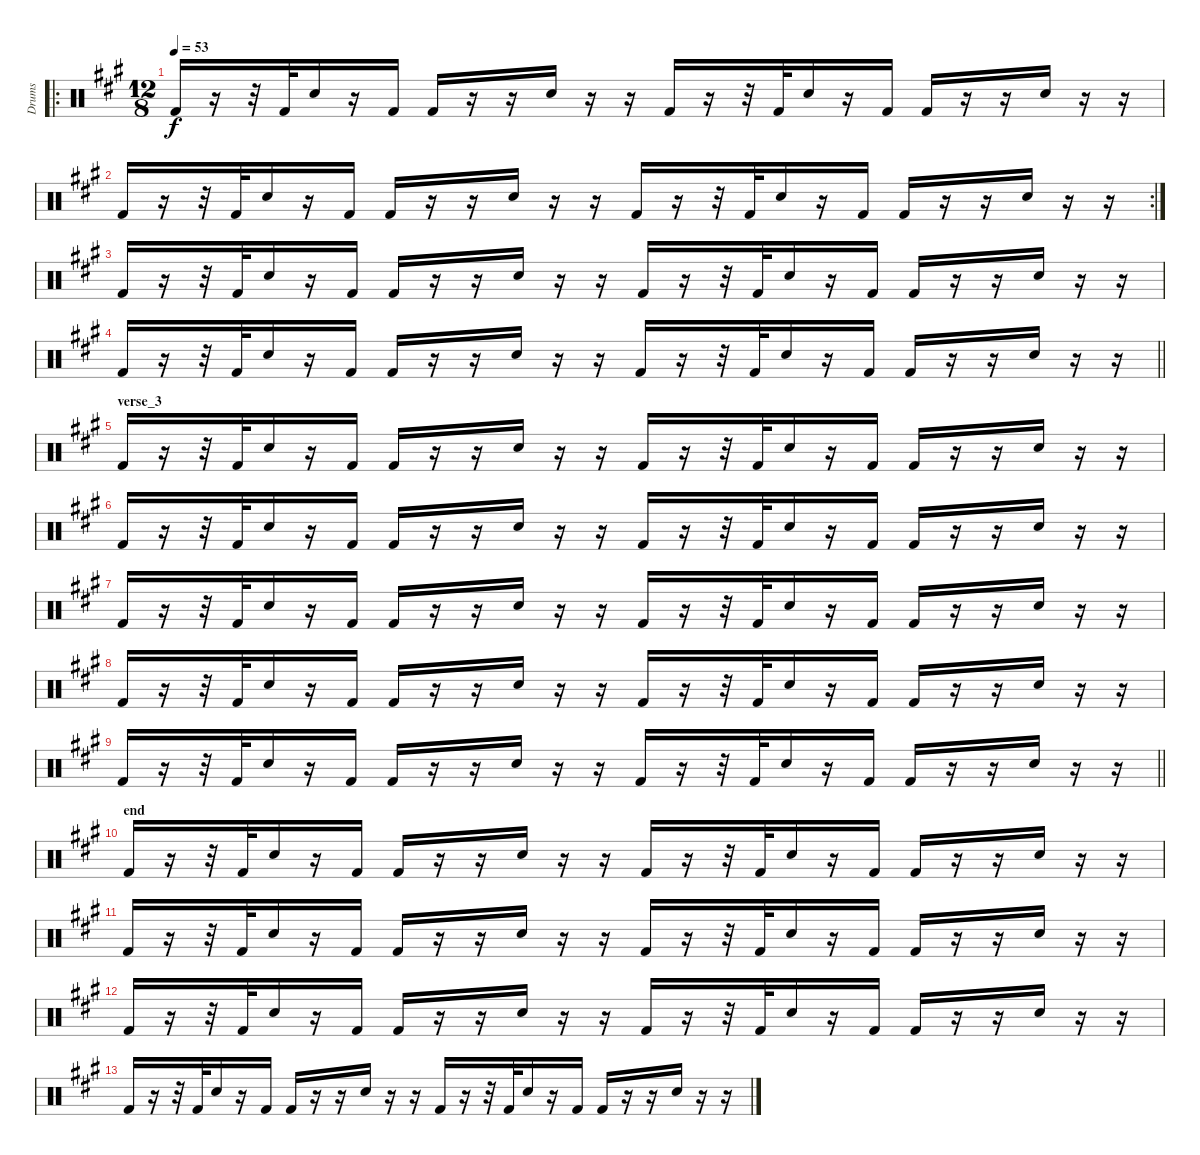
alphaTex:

\track ("Drums" "Drums") {instrument percussion}
\staff {score}
\articulation defaults
\ro
\ts (12 8)
\tempo 53
\clef neutral
\ks f#minor "Kick (hit) 2".16{dy f}
r.16 r.32 "Kick (hit) 2".32 "Snare (hit) 2".16 r.16 "Kick (hit) 2".16 "Kick (hit) 2".16 r.16 r.16 "Snare (hit) 2".16 r.16 r.16 "Kick (hit) 2".16 r.16 r.32 "Kick (hit) 2".32 "Snare (hit) 2".16 r.16 "Kick (hit) 2".16 "Kick (hit) 2".16 r.16 r.16 "Snare (hit) 2".16 r.16 r.16 |
\rc 2 "Kick (hit) 2".16
r.16 r.32 "Kick (hit) 2".32 "Snare (hit) 2".16 r.16 "Kick (hit) 2".16 "Kick (hit) 2".16 r.16 r.16 "Snare (hit) 2".16 r.16 r.16 "Kick (hit) 2".16 r.16 r.32 "Kick (hit) 2".32 "Snare (hit) 2".16 r.16 "Kick (hit) 2".16 "Kick (hit) 2".16 r.16 r.16 "Snare (hit) 2".16 r.16 r.16 |
"Kick (hit) 2".16 r.16 r.32 "Kick (hit) 2".32 "Snare (hit) 2".16 r.16 "Kick (hit) 2".16 "Kick (hit) 2".16 r.16 r.16 "Snare (hit) 2".16 r.16 r.16 "Kick (hit) 2".16 r.16 r.32 "Kick (hit) 2".32 "Snare (hit) 2".16 r.16 "Kick (hit) 2".16 "Kick (hit) 2".16 r.16 r.16 "Snare (hit) 2".16 r.16 r.16 |
\barLineRight lightlight "Kick (hit) 2".16
r.16 r.32 "Kick (hit) 2".32 "Snare (hit) 2".16 r.16 "Kick (hit) 2".16 "Kick (hit) 2".16 r.16 r.16 "Snare (hit) 2".16 r.16 r.16 "Kick (hit) 2".16 r.16 r.32 "Kick (hit) 2".32 "Snare (hit) 2".16 r.16 "Kick (hit) 2".16 "Kick (hit) 2".16 r.16 r.16 "Snare (hit) 2".16 r.16 r.16 |
\section ("" "verse_3")
"Kick (hit) 2".16 r.16 r.32 "Kick (hit) 2".32 "Snare (hit) 2".16 r.16 "Kick (hit) 2".16 "Kick (hit) 2".16 r.16 r.16 "Snare (hit) 2".16 r.16 r.16 "Kick (hit) 2".16 r.16 r.32 "Kick (hit) 2".32 "Snare (hit) 2".16 r.16 "Kick (hit) 2".16 "Kick (hit) 2".16 r.16 r.16 "Snare (hit) 2".16 r.16 r.16 |
"Kick (hit) 2".16 r.16 r.32 "Kick (hit) 2".32 "Snare (hit) 2".16 r.16 "Kick (hit) 2".16 "Kick (hit) 2".16 r.16 r.16 "Snare (hit) 2".16 r.16 r.16 "Kick (hit) 2".16 r.16 r.32 "Kick (hit) 2".32 "Snare (hit) 2".16 r.16 "Kick (hit) 2".16 "Kick (hit) 2".16 r.16 r.16 "Snare (hit) 2".16 r.16 r.16 |
"Kick (hit) 2".16 r.16 r.32 "Kick (hit) 2".32 "Snare (hit) 2".16 r.16 "Kick (hit) 2".16 "Kick (hit) 2".16 r.16 r.16 "Snare (hit) 2".16 r.16 r.16 "Kick (hit) 2".16 r.16 r.32 "Kick (hit) 2".32 "Snare (hit) 2".16 r.16 "Kick (hit) 2".16 "Kick (hit) 2".16 r.16 r.16 "Snare (hit) 2".16 r.16 r.16 |
"Kick (hit) 2".16 r.16 r.32 "Kick (hit) 2".32 "Snare (hit) 2".16 r.16 "Kick (hit) 2".16 "Kick (hit) 2".16 r.16 r.16 "Snare (hit) 2".16 r.16 r.16 "Kick (hit) 2".16 r.16 r.32 "Kick (hit) 2".32 "Snare (hit) 2".16 r.16 "Kick (hit) 2".16 "Kick (hit) 2".16 r.16 r.16 "Snare (hit) 2".16 r.16 r.16 |
\barLineRight lightlight "Kick (hit) 2".16
r.16 r.32 "Kick (hit) 2".32 "Snare (hit) 2".16 r.16 "Kick (hit) 2".16 "Kick (hit) 2".16 r.16 r.16 "Snare (hit) 2".16 r.16 r.16 "Kick (hit) 2".16 r.16 r.32 "Kick (hit) 2".32 "Snare (hit) 2".16 r.16 "Kick (hit) 2".16 "Kick (hit) 2".16 r.16 r.16 "Snare (hit) 2".16 r.16 r.16 |
\section ("" "end")
"Kick (hit) 2".16 r.16 r.32 "Kick (hit) 2".32 "Snare (hit) 2".16 r.16 "Kick (hit) 2".16 "Kick (hit) 2".16 r.16 r.16 "Snare (hit) 2".16 r.16 r.16 "Kick (hit) 2".16 r.16 r.32 "Kick (hit) 2".32 "Snare (hit) 2".16 r.16 "Kick (hit) 2".16 "Kick (hit) 2".16 r.16 r.16 "Snare (hit) 2".16 r.16 r.16 |
"Kick (hit) 2".16 r.16 r.32 "Kick (hit) 2".32 "Snare (hit) 2".16 r.16 "Kick (hit) 2".16 "Kick (hit) 2".16 r.16 r.16 "Snare (hit) 2".16 r.16 r.16 "Kick (hit) 2".16 r.16 r.32 "Kick (hit) 2".32 "Snare (hit) 2".16 r.16 "Kick (hit) 2".16 "Kick (hit) 2".16 r.16 r.16 "Snare (hit) 2".16 r.16 r.16 |
"Kick (hit) 2".16{volume 3} r.16 r.32 "Kick (hit) 2".32 "Snare (hit) 2".16 r.16 "Kick (hit) 2".16 "Kick (hit) 2".16 r.16 r.16 "Snare (hit) 2".16 r.16 r.16 "Kick (hit) 2".16 r.16 r.32 "Kick (hit) 2".32 "Snare (hit) 2".16 r.16 "Kick (hit) 2".16 "Kick (hit) 2".16 r.16 r.16 "Snare (hit) 2".16 r.16 r.16 |
"Kick (hit) 2".16 r.16 r.32 "Kick (hit) 2".32 "Snare (hit) 2".16 r.16 "Kick (hit) 2".16 "Kick (hit) 2".16 r.16 r.16 "Snare (hit) 2".16 r.16 r.16 "Kick (hit) 2".16 r.16 r.32 "Kick (hit) 2".32 "Snare (hit) 2".16 r.16 "Kick (hit) 2".16 "Kick (hit) 2".16 r.16 r.16 "Snare (hit) 2".16 r.16 r.16
